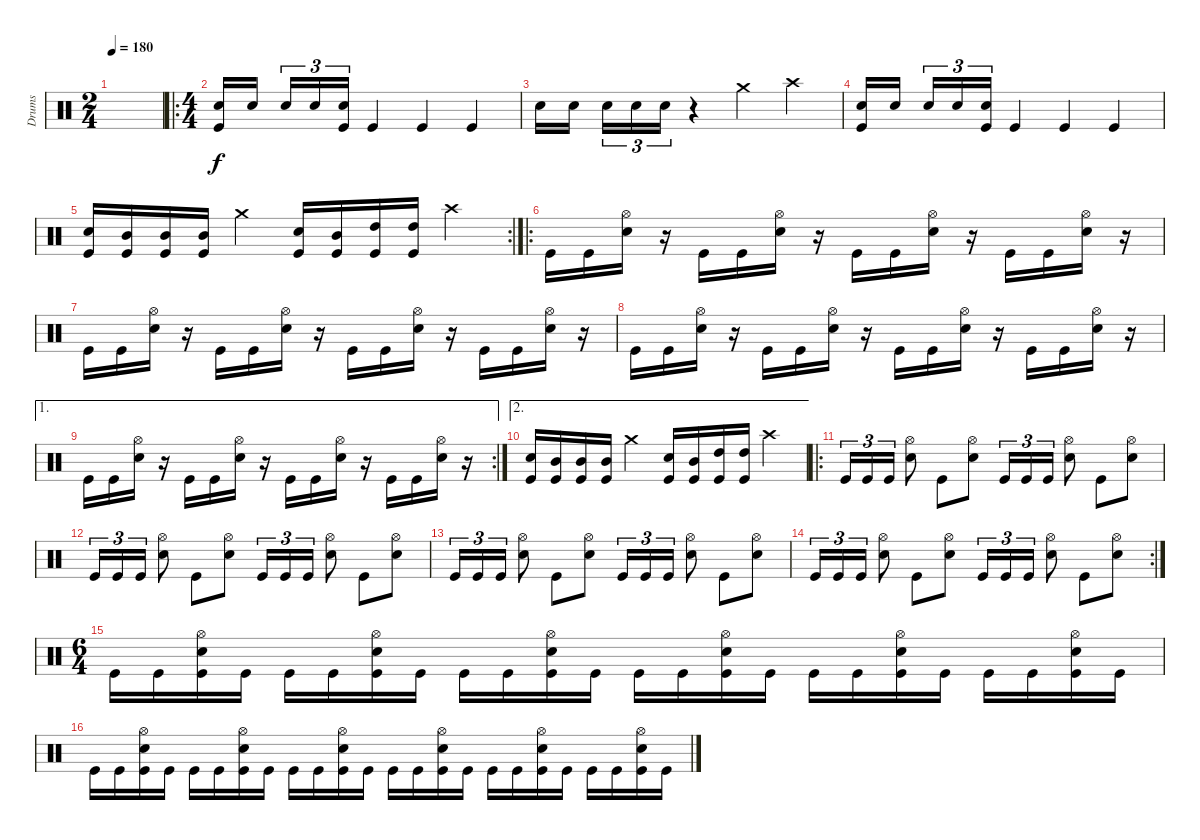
\track ("Drums" "Drums") {instrument percussion}
\staff {score}
\articulation defaults
\ts (2 4)
\tempo 180
\clef neutral
\ks c
|
\ro
\ts (4 4)
("Kick (hit)" "Electric Snare (hit)").16 "Electric Snare (hit)".16 "Electric Snare (hit)".16{tu (3 2)} "Electric Snare (hit)".16{tu (3 2)} ("Kick (hit)" "Electric Snare (hit)").16{tu (3 2)} "Kick (hit)".4 "Kick (hit)".4 "Kick (hit)".4 |
"Electric Snare (hit)".16 "Electric Snare (hit)".16 "Electric Snare (hit)".16{tu (3 2)} "Electric Snare (hit)".16{tu (3 2)} "Electric Snare (hit)".16{tu (3 2)} r.4 "Crash medium (hit)".4 "Crash high (hit)".4 |
("Kick (hit)" "Electric Snare (hit)").16 "Electric Snare (hit)".16 "Electric Snare (hit)".16{tu (3 2)} "Electric Snare (hit)".16{tu (3 2)} ("Kick (hit)" "Electric Snare (hit)").16{tu (3 2)} "Kick (hit)".4 "Kick (hit)".4 "Kick (hit)".4 |
\rc 2
("Kick (hit)" "Electric Snare (hit)").16 ("Kick (hit)" "Mid Tom (hit)").16 ("Kick (hit)" "Mid Tom (hit)").16 ("Kick (hit)" "Mid Tom (hit)").16 "Crash medium (hit)".4 ("Kick (hit)" "Electric Snare (hit)").16 ("Kick (hit)" "Mid Tom (hit)").16 ("Kick (hit)" "High Tom (hit)").16 ("Kick (hit)" "High Tom (hit)").16 "Crash high (hit)".4 |
\ro "Kick (hit)".16 "Kick (hit)".16
("Electric Snare (hit)" "Hi-Hat (open)").16 r.16 "Kick (hit)".16 "Kick (hit)".16 ("Electric Snare (hit)" "Hi-Hat (open)").16 r.16 "Kick (hit)".16 "Kick (hit)".16 ("Electric Snare (hit)" "Hi-Hat (open)").16 r.16 "Kick (hit)".16 "Kick (hit)".16 ("Electric Snare (hit)" "Hi-Hat (open)").16 r.16 |
"Kick (hit)".16 "Kick (hit)".16 ("Electric Snare (hit)" "Hi-Hat (open)").16 r.16 "Kick (hit)".16 "Kick (hit)".16 ("Electric Snare (hit)" "Hi-Hat (open)").16 r.16 "Kick (hit)".16 "Kick (hit)".16 ("Electric Snare (hit)" "Hi-Hat (open)").16 r.16 "Kick (hit)".16 "Kick (hit)".16 ("Electric Snare (hit)" "Hi-Hat (open)").16 r.16 |
"Kick (hit)".16 "Kick (hit)".16 ("Electric Snare (hit)" "Hi-Hat (open)").16 r.16 "Kick (hit)".16 "Kick (hit)".16 ("Electric Snare (hit)" "Hi-Hat (open)").16 r.16 "Kick (hit)".16 "Kick (hit)".16 ("Electric Snare (hit)" "Hi-Hat (open)").16 r.16 "Kick (hit)".16 "Kick (hit)".16 ("Electric Snare (hit)" "Hi-Hat (open)").16 r.16 |
\ae 1
\rc 2 "Kick (hit)".16 "Kick (hit)".16
("Electric Snare (hit)" "Hi-Hat (open)").16 r.16 "Kick (hit)".16 "Kick (hit)".16 ("Electric Snare (hit)" "Hi-Hat (open)").16 r.16 "Kick (hit)".16 "Kick (hit)".16 ("Electric Snare (hit)" "Hi-Hat (open)").16 r.16 "Kick (hit)".16 "Kick (hit)".16 ("Electric Snare (hit)" "Hi-Hat (open)").16 r.16 |
\ae 2
("Kick (hit)" "Electric Snare (hit)").16 ("Kick (hit)" "Mid Tom (hit)").16 ("Kick (hit)" "Mid Tom (hit)").16 ("Kick (hit)" "Mid Tom (hit)").16 "Crash medium (hit)".4 ("Kick (hit)" "Electric Snare (hit)").16 ("Kick (hit)" "Mid Tom (hit)").16 ("Kick (hit)" "High Tom (hit)").16 ("Kick (hit)" "High Tom (hit)").16 "Crash high (hit)".4 |
\ro "Kick (hit)".16{tu (3 2)} "Kick (hit)".16{tu (3 2)} "Kick (hit)".16{tu (3 2)}
("Electric Snare (hit)" "Hi-Hat (open)").8 "Kick (hit)".8 ("Electric Snare (hit)" "Hi-Hat (open)").8 "Kick (hit)".16{tu (3 2)} "Kick (hit)".16{tu (3 2)} "Kick (hit)".16{tu (3 2)} ("Electric Snare (hit)" "Hi-Hat (open)").8 "Kick (hit)".8 ("Electric Snare (hit)" "Hi-Hat (open)").8 |
"Kick (hit)".16{tu (3 2)} "Kick (hit)".16{tu (3 2)} "Kick (hit)".16{tu (3 2)} ("Electric Snare (hit)" "Hi-Hat (open)").8 "Kick (hit)".8 ("Electric Snare (hit)" "Hi-Hat (open)").8 "Kick (hit)".16{tu (3 2)} "Kick (hit)".16{tu (3 2)} "Kick (hit)".16{tu (3 2)} ("Electric Snare (hit)" "Hi-Hat (open)").8 "Kick (hit)".8 ("Electric Snare (hit)" "Hi-Hat (open)").8 |
"Kick (hit)".16{tu (3 2)} "Kick (hit)".16{tu (3 2)} "Kick (hit)".16{tu (3 2)} ("Electric Snare (hit)" "Hi-Hat (open)").8 "Kick (hit)".8 ("Electric Snare (hit)" "Hi-Hat (open)").8 "Kick (hit)".16{tu (3 2)} "Kick (hit)".16{tu (3 2)} "Kick (hit)".16{tu (3 2)} ("Electric Snare (hit)" "Hi-Hat (open)").8 "Kick (hit)".8 ("Electric Snare (hit)" "Hi-Hat (open)").8 |
\rc 2 "Kick (hit)".16{tu (3 2)} "Kick (hit)".16{tu (3 2)} "Kick (hit)".16{tu (3 2)}
("Electric Snare (hit)" "Hi-Hat (open)").8 "Kick (hit)".8 ("Electric Snare (hit)" "Hi-Hat (open)").8 "Kick (hit)".16{tu (3 2)} "Kick (hit)".16{tu (3 2)} "Kick (hit)".16{tu (3 2)} ("Electric Snare (hit)" "Hi-Hat (open)").8 "Kick (hit)".8 ("Electric Snare (hit)" "Hi-Hat (open)").8 |
\ts (6 4)
"Kick (hit)".16 "Kick (hit)".16 ("Kick (hit)" "Electric Snare (hit)" "Hi-Hat (open)").16 "Kick (hit)".16 "Kick (hit)".16 "Kick (hit)".16 ("Kick (hit)" "Electric Snare (hit)" "Hi-Hat (open)").16 "Kick (hit)".16 "Kick (hit)".16 "Kick (hit)".16 ("Kick (hit)" "Electric Snare (hit)" "Hi-Hat (open)").16 "Kick (hit)".16 "Kick (hit)".16 "Kick (hit)".16 ("Kick (hit)" "Electric Snare (hit)" "Hi-Hat (open)").16 "Kick (hit)".16 "Kick (hit)".16 "Kick (hit)".16 ("Kick (hit)" "Electric Snare (hit)" "Hi-Hat (open)").16 "Kick (hit)".16 "Kick (hit)".16 "Kick (hit)".16 ("Kick (hit)" "Electric Snare (hit)" "Hi-Hat (open)").16 "Kick (hit)".16 |
"Kick (hit)".16 "Kick (hit)".16 ("Kick (hit)" "Electric Snare (hit)" "Hi-Hat (open)").16 "Kick (hit)".16 "Kick (hit)".16 "Kick (hit)".16 ("Kick (hit)" "Electric Snare (hit)" "Hi-Hat (open)").16 "Kick (hit)".16 "Kick (hit)".16 "Kick (hit)".16 ("Kick (hit)" "Electric Snare (hit)" "Hi-Hat (open)").16 "Kick (hit)".16 "Kick (hit)".16 "Kick (hit)".16 ("Kick (hit)" "Electric Snare (hit)" "Hi-Hat (open)").16 "Kick (hit)".16 "Kick (hit)".16 "Kick (hit)".16 ("Kick (hit)" "Electric Snare (hit)" "Hi-Hat (open)").16 "Kick (hit)".16 "Kick (hit)".16 "Kick (hit)".16 ("Kick (hit)" "Electric Snare (hit)" "Hi-Hat (open)").16 "Kick (hit)".16
